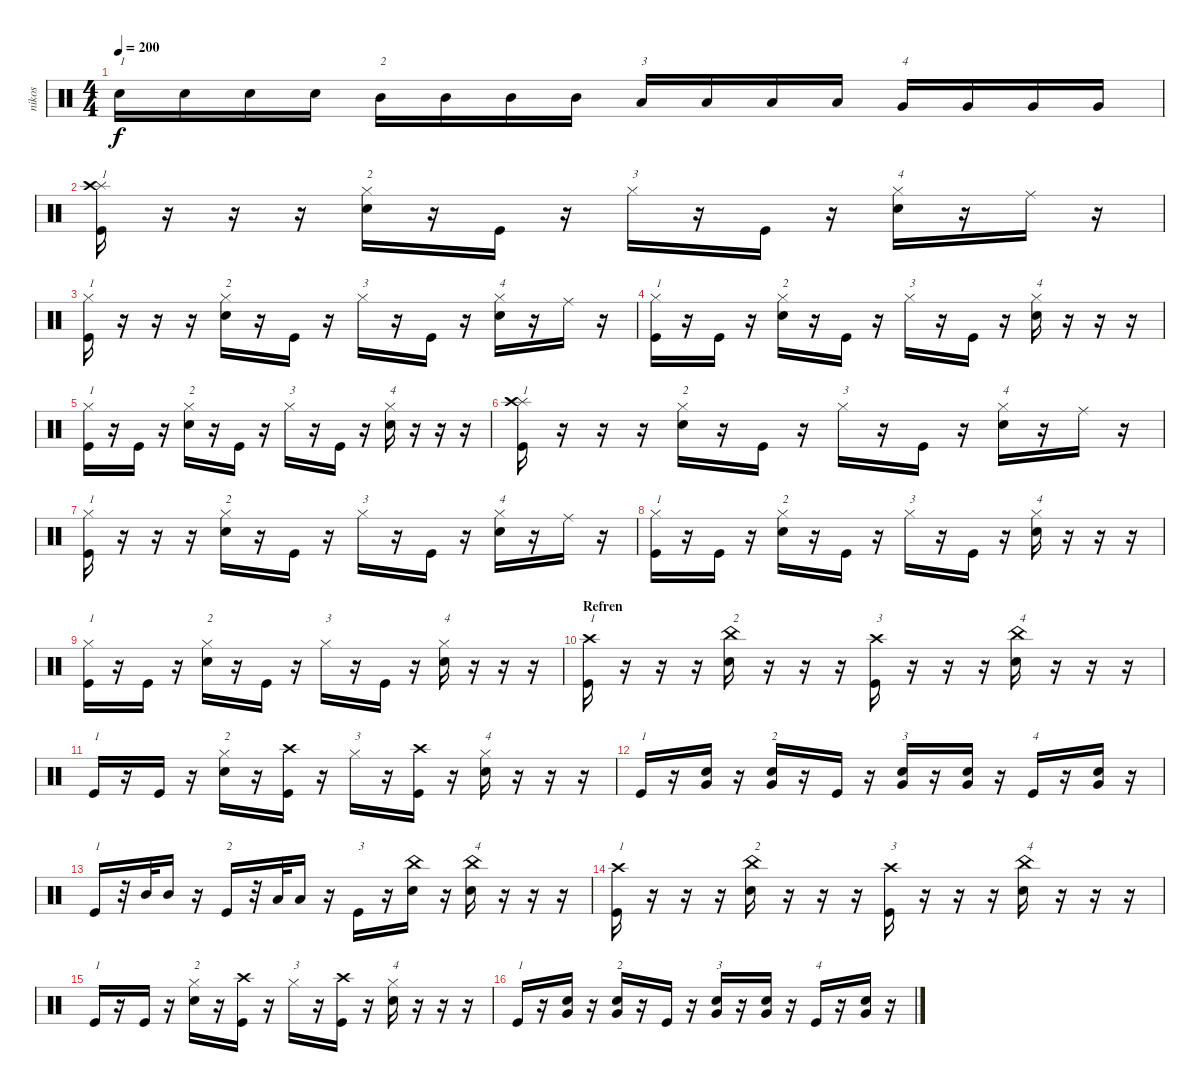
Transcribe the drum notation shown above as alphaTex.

\track ("nikos" "nikos") {instrument percussion}
\staff {score}
\articulation defaults
\ts (4 4)
\tempo 200
\clef neutral
\ks c "Electric Snare (hit)".16{txt "1" dy f} "Electric Snare (hit)".16 "Electric Snare (hit)".16 "Electric Snare (hit)".16 "Mid Tom (hit)".16{txt "2"} "Mid Tom (hit)".16 "Mid Tom (hit)".16 "Mid Tom (hit)".16 "Low Tom (hit)".16{txt "3"} "Low Tom (hit)".16 "Low Tom (hit)".16 "Low Tom (hit)".16 "Very Low Tom (hit)".16{txt "4"} "Very Low Tom (hit)".16 "Very Low Tom (hit)".16 "Very Low Tom (hit)".16
|
("Splash (hit)" "Crash high (hit)" "Kick (hit)").16{txt "1"} r.16 r.16 r.16 ("Hi-Hat (closed)" "Electric Snare (hit)").16{txt "2"} r.16 "Kick (hit)".16 r.16 "Hi-Hat (closed)".16{txt "3"} r.16 "Kick (hit)".16 r.16 ("Hi-Hat (closed)" "Electric Snare (hit)").16{txt "4"} r.16 "Ride (middle)".16 r.16 |
("Hi-Hat (closed)" "Kick (hit)").16{txt "1"} r.16 r.16 r.16 ("Hi-Hat (closed)" "Electric Snare (hit)").16{txt "2"} r.16 "Kick (hit)".16 r.16 "Hi-Hat (closed)".16{txt "3"} r.16 "Kick (hit)".16 r.16 ("Hi-Hat (closed)" "Electric Snare (hit)").16{txt "4"} r.16 "Ride (middle)".16 r.16 |
("Hi-Hat (closed)" "Kick (hit)").16{txt "1"} r.16 "Kick (hit)".16 r.16 ("Hi-Hat (closed)" "Electric Snare (hit)").16{txt "2"} r.16 "Kick (hit)".16 r.16 "Hi-Hat (closed)".16{txt "3"} r.16 "Kick (hit)".16 r.16 ("Hi-Hat (closed)" "Electric Snare (hit)").16{txt "4"} r.16 r.16 r.16 |
("Hi-Hat (closed)" "Kick (hit)").16{txt "1"} r.16 "Kick (hit)".16 r.16 ("Hi-Hat (closed)" "Electric Snare (hit)").16{txt "2"} r.16 "Kick (hit)".16 r.16 "Hi-Hat (closed)".16{txt "3"} r.16 "Kick (hit)".16 r.16 ("Hi-Hat (closed)" "Electric Snare (hit)").16{txt "4"} r.16 r.16 r.16 |
("Splash (hit)" "Crash high (hit)" "Kick (hit)").16{txt "1"} r.16 r.16 r.16 ("Hi-Hat (closed)" "Electric Snare (hit)").16{txt "2"} r.16 "Kick (hit)".16 r.16 "Hi-Hat (closed)".16{txt "3"} r.16 "Kick (hit)".16 r.16 ("Hi-Hat (closed)" "Electric Snare (hit)").16{txt "4"} r.16 "Ride (middle)".16 r.16 |
("Hi-Hat (closed)" "Kick (hit)").16{txt "1"} r.16 r.16 r.16 ("Hi-Hat (closed)" "Electric Snare (hit)").16{txt "2"} r.16 "Kick (hit)".16 r.16 "Hi-Hat (closed)".16{txt "3"} r.16 "Kick (hit)".16 r.16 ("Hi-Hat (closed)" "Electric Snare (hit)").16{txt "4"} r.16 "Ride (middle)".16 r.16 |
("Hi-Hat (closed)" "Kick (hit)").16{txt "1"} r.16 "Kick (hit)".16 r.16 ("Hi-Hat (closed)" "Electric Snare (hit)").16{txt "2"} r.16 "Kick (hit)".16 r.16 "Hi-Hat (closed)".16{txt "3"} r.16 "Kick (hit)".16 r.16 ("Hi-Hat (closed)" "Electric Snare (hit)").16{txt "4"} r.16 r.16 r.16 |
("Hi-Hat (closed)" "Kick (hit)").16{txt "1"} r.16 "Kick (hit)".16 r.16 ("Hi-Hat (closed)" "Electric Snare (hit)").16{txt "2"} r.16 "Kick (hit)".16 r.16 "Hi-Hat (closed)".16{txt "3"} r.16 "Kick (hit)".16 r.16 ("Hi-Hat (closed)" "Electric Snare (hit)").16{txt "4"} r.16 r.16 r.16 |
\section ("" "Refren")
("Crash high (hit)" "Kick (hit)").16{txt "1"} r.16 r.16 r.16 ("China (hit)" "Electric Snare (hit)").16{txt "2"} r.16 r.16 r.16 ("Crash high (hit)" "Kick (hit)").16{txt "3"} r.16 r.16 r.16 ("China (hit)" "Electric Snare (hit)").16{txt "4"} r.16 r.16 r.16 |
"Kick (hit)".16{txt "1"} r.16 "Kick (hit)".16 r.16 ("Hi-Hat (closed)" "Electric Snare (hit)").16{txt "2"} r.16 ("Crash high (hit)" "Kick (hit)").16 r.16 "Hi-Hat (closed)".16{txt "3"} r.16 ("Crash high (hit)" "Kick (hit)").16 r.16 ("Hi-Hat (closed)" "Electric Snare (hit)").16{txt "4"} r.16 r.16 r.16 |
"Kick (hit)".16{txt "1"} r.16 ("Very Low Tom (hit)" "Electric Snare (hit)").16 r.16 ("Very Low Tom (hit)" "Electric Snare (hit)").16{txt "2"} r.16 "Kick (hit)".16 r.16 ("Very Low Tom (hit)" "Electric Snare (hit)").16{txt "3"} r.16 ("Very Low Tom (hit)" "Electric Snare (hit)").16 r.16 "Kick (hit)".16{txt "4"} r.16 ("Very Low Tom (hit)" "Electric Snare (hit)").16 r.16 |
"Kick (hit)".16{txt "1"} r.32 "Mid Tom (hit)".32 "Mid Tom (hit)".16 r.16 "Kick (hit)".16{txt "2"} r.32 "Low Tom (hit)".32 "Low Tom (hit)".16 r.16 "Kick (hit)".16{txt "3"} r.16 ("China (hit)" "Electric Snare (hit)").16 r.16 ("China (hit)" "Electric Snare (hit)").16{txt "4"} r.16 r.16 r.16 |
("Crash high (hit)" "Kick (hit)").16{txt "1"} r.16 r.16 r.16 ("China (hit)" "Electric Snare (hit)").16{txt "2"} r.16 r.16 r.16 ("Crash high (hit)" "Kick (hit)").16{txt "3"} r.16 r.16 r.16 ("China (hit)" "Electric Snare (hit)").16{txt "4"} r.16 r.16 r.16 |
"Kick (hit)".16{txt "1"} r.16 "Kick (hit)".16 r.16 ("Hi-Hat (closed)" "Electric Snare (hit)").16{txt "2"} r.16 ("Crash high (hit)" "Kick (hit)").16 r.16 "Hi-Hat (closed)".16{txt "3"} r.16 ("Crash high (hit)" "Kick (hit)").16 r.16 ("Hi-Hat (closed)" "Electric Snare (hit)").16{txt "4"} r.16 r.16 r.16 |
"Kick (hit)".16{txt "1"} r.16 ("Very Low Tom (hit)" "Electric Snare (hit)").16 r.16 ("Very Low Tom (hit)" "Electric Snare (hit)").16{txt "2"} r.16 "Kick (hit)".16 r.16 ("Very Low Tom (hit)" "Electric Snare (hit)").16{txt "3"} r.16 ("Very Low Tom (hit)" "Electric Snare (hit)").16 r.16 "Kick (hit)".16{txt "4"} r.16 ("Very Low Tom (hit)" "Electric Snare (hit)").16 r.16
